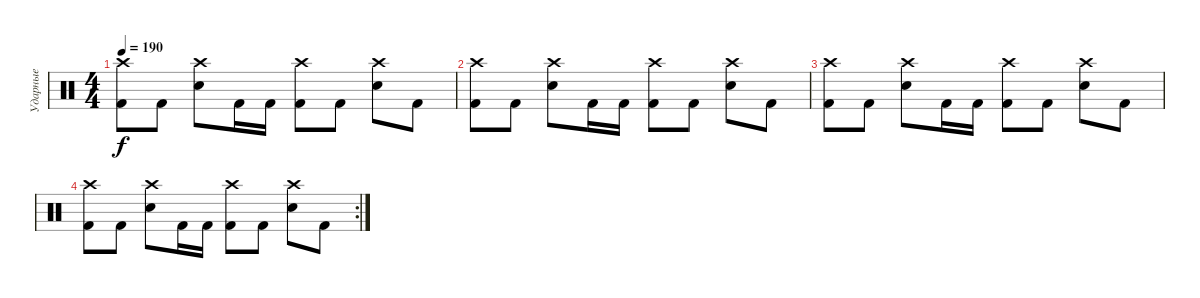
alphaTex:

\track ("Ударные" "Ударные") {instrument percussion}
\staff {score}
\articulation defaults
\ts (4 4)
\tempo 190
\clef neutral
\ks c
("Crash high (hit)" "Kick (hit) 2").8{dy f} "Kick (hit) 2".8 ("Electric Snare (hit)" "Crash high (hit)").8 "Kick (hit) 2".16 "Kick (hit) 2".16 ("Kick (hit) 2" "Crash high (hit)").8 "Kick (hit) 2".8 ("Electric Snare (hit)" "Crash high (hit)").8 "Kick (hit) 2".8 |
("Crash high (hit)" "Kick (hit) 2").8 "Kick (hit) 2".8 ("Electric Snare (hit)" "Crash high (hit)").8 "Kick (hit) 2".16 "Kick (hit) 2".16 ("Kick (hit) 2" "Crash high (hit)").8 "Kick (hit) 2".8 ("Electric Snare (hit)" "Crash high (hit)").8 "Kick (hit) 2".8 |
("Crash high (hit)" "Kick (hit) 2").8 "Kick (hit) 2".8 ("Electric Snare (hit)" "Crash high (hit)").8 "Kick (hit) 2".16 "Kick (hit) 2".16 ("Kick (hit) 2" "Crash high (hit)").8 "Kick (hit) 2".8 ("Electric Snare (hit)" "Crash high (hit)").8 "Kick (hit) 2".8 |
\rc 2
("Crash high (hit)" "Kick (hit) 2").8 "Kick (hit) 2".8 ("Electric Snare (hit)" "Crash high (hit)").8 "Kick (hit) 2".16 "Kick (hit) 2".16 ("Kick (hit) 2" "Crash high (hit)").8 "Kick (hit) 2".8 ("Electric Snare (hit)" "Crash high (hit)").8 "Kick (hit) 2".8
